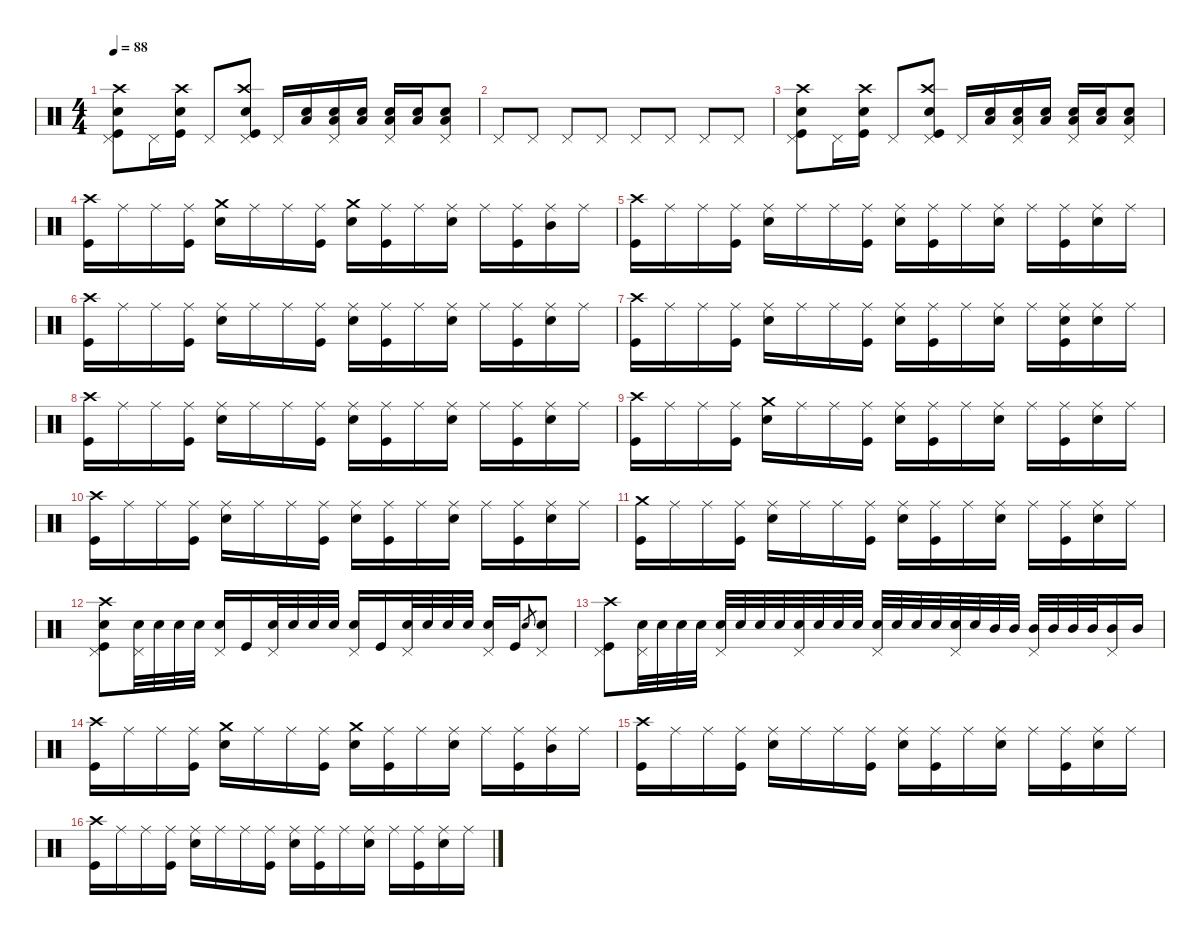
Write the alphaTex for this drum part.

\defaultSystemsLayout 4
\hideDynamics
\bracketExtendMode nobrackets
\singleTrackTrackNamePolicy hidden
\multiTrackTrackNamePolicy hidden
\firstSystemTrackNameMode fullname
\firstSystemTrackNameOrientation horizontal
\otherSystemsTrackNameOrientation horizontal
\track ("Drums" "drm.") {instrument percussion}
\staff {score}
\articulation defaults
\ts (4 4)
\tempo 88
\clef neutral
\ks c
("Crash high (hit)" "Pedal Hi-Hat (hit)" "Snare (hit) 2" "Kick (hit)").8{dy f beam Down} "Pedal Hi-Hat (hit)".16{dy pp beam Down} ("Crash high (hit)" "Snare (hit) 2" "Kick (hit)").16{dy f beam Down} "Pedal Hi-Hat (hit)".8{dy pp beam Up} ("Crash high (hit)" "Pedal Hi-Hat (hit)" "Snare (hit) 2" "Kick (hit)").8{dy f beam Up} "Pedal Hi-Hat (hit)".16{dy pp beam Up} ("Low Tom (hit)" "Snare (hit) 2").16{dy mf beam Up} ("Pedal Hi-Hat (hit)" "Low Tom (hit)" "Snare (hit) 2").16{dy pp beam Up} ("Low Tom (hit)" "Snare (hit) 2").16{dy mf beam Up} ("Pedal Hi-Hat (hit)" "Low Tom (hit)" "Snare (hit) 2").16{dy pp beam Up} ("Low Tom (hit)" "Snare (hit) 2").16{dy f beam Up} ("Pedal Hi-Hat (hit)" "Low Tom (hit)" "Snare (hit) 2").8{dy pp beam Up} |
"Pedal Hi-Hat (hit)".8{beam Up} "Pedal Hi-Hat (hit)".8{beam Up} "Pedal Hi-Hat (hit)".8{beam Up} "Pedal Hi-Hat (hit)".8{beam Up} "Pedal Hi-Hat (hit)".8{beam Up} "Pedal Hi-Hat (hit)".8{beam Up} "Pedal Hi-Hat (hit)".8{beam Up} "Pedal Hi-Hat (hit)".8{beam Up} |
("Crash high (hit)" "Pedal Hi-Hat (hit)" "Snare (hit) 2" "Kick (hit)").8{dy f beam Down} "Pedal Hi-Hat (hit)".16{dy pp beam Down} ("Crash high (hit)" "Snare (hit) 2" "Kick (hit)").16{dy f beam Down} "Pedal Hi-Hat (hit)".8{dy pp beam Up} ("Crash high (hit)" "Pedal Hi-Hat (hit)" "Snare (hit) 2" "Kick (hit)").8{dy f beam Up} "Pedal Hi-Hat (hit)".16{dy pp beam Up} ("Low Tom (hit)" "Snare (hit) 2").16{dy mf beam Up} ("Pedal Hi-Hat (hit)" "Low Tom (hit)" "Snare (hit) 2").16{dy pp beam Up} ("Low Tom (hit)" "Snare (hit) 2").16{dy mf beam Up} ("Pedal Hi-Hat (hit)" "Low Tom (hit)" "Snare (hit) 2").16{dy pp beam Up} ("Low Tom (hit)" "Snare (hit) 2").16{dy f beam Up} ("Pedal Hi-Hat (hit)" "Low Tom (hit)" "Snare (hit) 2").8{dy pp beam Up} |
("Crash high (hit)" "Kick (hit)").16{dy f beam Down} "Ride (middle)".16{dy mp beam Down} "Ride (middle)".16{dy f beam Down} ("Ride (middle)" "Kick (hit)").16{dy mp beam Down} ("Crash medium (hit)" "Snare (hit) 2").16{dy f beam Down} "Ride (middle)".16{dy mp beam Down} "Ride (middle)".16{dy f beam Down} ("Ride (middle)" "Kick (hit)").16{dy mp beam Down} ("Crash medium (hit)" "Snare (hit) 2").16{dy f beam Down} ("Ride (middle)" "Kick (hit)").16{dy mp beam Down} "Ride (middle)".16{dy f beam Down} ("Ride (middle)" "Snare (hit) 2").16{dy mp beam Down} "Ride (middle)".16{dy f beam Down} ("Ride (middle)" "Kick (hit)").16{dy mp beam Down} ("Ride (middle)" "Mid Tom (hit)").16{dy f beam Down} "Ride (middle)".16{dy mp beam Down} |
("Crash high (hit)" "Kick (hit)").16{dy f beam Down} "Ride (middle)".16{dy mp beam Down} "Ride (middle)".16{dy f beam Down} ("Ride (middle)" "Kick (hit)").16{dy mp beam Down} ("Ride (middle)" "Snare (hit) 2").16{dy f beam Down} "Ride (middle)".16{dy mp beam Down} "Ride (middle)".16{dy f beam Down} ("Ride (middle)" "Kick (hit)").16{dy mp beam Down} ("Ride (middle)" "Snare (hit) 2").16{dy f beam Down} ("Ride (middle)" "Kick (hit)").16{dy mp beam Down} "Ride (middle)".16{dy f beam Down} ("Ride (middle)" "Snare (hit) 2").16{dy mp beam Down} "Ride (middle)".16{dy f beam Down} ("Ride (middle)" "Kick (hit)").16{dy mp beam Down} ("Ride (middle)" "Snare (hit) 2").16{dy f beam Down} "Ride (middle)".16{dy mp beam Down} |
("Crash high (hit)" "Kick (hit)").16{dy f beam Down} "Ride (middle)".16{dy mp beam Down} "Ride (middle)".16{dy f beam Down} ("Ride (middle)" "Kick (hit)").16{dy mp beam Down} ("Ride (middle)" "Snare (hit) 2").16{dy f beam Down} "Ride (middle)".16{dy mp beam Down} "Ride (middle)".16{dy f beam Down} ("Ride (middle)" "Kick (hit)").16{dy mp beam Down} ("Ride (middle)" "Snare (hit) 2").16{dy f beam Down} ("Ride (middle)" "Kick (hit)").16{dy mp beam Down} "Ride (middle)".16{dy f beam Down} ("Ride (middle)" "Snare (hit) 2").16{dy mp beam Down} "Ride (middle)".16{dy f beam Down} ("Ride (middle)" "Kick (hit)").16{dy mp beam Down} ("Ride (middle)" "Snare (hit) 2").16{dy f beam Down} "Ride (middle)".16{dy mp beam Down} |
("Crash high (hit)" "Kick (hit)").16{dy f beam Down} "Ride (middle)".16{dy mp beam Down} "Ride (middle)".16{dy f beam Down} ("Ride (middle)" "Kick (hit)").16{dy mp beam Down} ("Ride (middle)" "Snare (hit) 2").16{dy f beam Down} "Ride (middle)".16{dy mp beam Down} "Ride (middle)".16{dy f beam Down} ("Ride (middle)" "Kick (hit)").16{dy mp beam Down} ("Ride (middle)" "Snare (hit) 2").16{dy f beam Down} ("Ride (middle)" "Kick (hit)").16{dy mp beam Down} "Ride (middle)".16{dy f beam Down} ("Ride (middle)" "Snare (hit) 2").16{dy mp beam Down} "Ride (middle)".16{dy f beam Down} ("Ride (middle)" "Snare (hit) 2" "Kick (hit)").16{dy mp beam Down} ("Ride (middle)" "Snare (hit) 2").16{dy f beam Down} "Ride (middle)".16{dy mp beam Down} |
("Crash high (hit)" "Kick (hit)").16{dy f beam Down} "Ride (middle)".16{dy mp beam Down} "Ride (middle)".16{dy f beam Down} ("Ride (middle)" "Kick (hit)").16{dy mp beam Down} ("Ride (middle)" "Snare (hit) 2").16{dy f beam Down} "Ride (middle)".16{dy mp beam Down} "Ride (middle)".16{dy f beam Down} ("Ride (middle)" "Kick (hit)").16{dy mp beam Down} ("Ride (middle)" "Snare (hit) 2").16{dy f beam Down} ("Ride (middle)" "Kick (hit)").16{dy mp beam Down} "Ride (middle)".16{dy f beam Down} ("Ride (middle)" "Snare (hit) 2").16{dy mp beam Down} "Ride (middle)".16{dy f beam Down} ("Ride (middle)" "Kick (hit)").16{dy mp beam Down} ("Ride (middle)" "Snare (hit) 2").16{dy f beam Down} "Ride (middle)".16{dy mp beam Down} |
("Crash high (hit)" "Kick (hit)").16{dy f beam Down} "Ride (middle)".16{dy mp beam Down} "Ride (middle)".16{dy f beam Down} ("Ride (middle)" "Kick (hit)").16{dy mp beam Down} ("Crash medium (hit)" "Snare (hit) 2").16{dy f beam Down} "Ride (middle)".16{dy mp beam Down} "Ride (middle)".16{dy f beam Down} ("Ride (middle)" "Kick (hit)").16{dy mp beam Down} ("Ride (middle)" "Snare (hit) 2").16{dy f beam Down} ("Ride (middle)" "Kick (hit)").16{dy mp beam Down} "Ride (middle)".16{dy f beam Down} ("Ride (middle)" "Snare (hit) 2").16{dy mp beam Down} "Ride (middle)".16{dy f beam Down} ("Ride (middle)" "Kick (hit)").16{dy mp beam Down} ("Ride (middle)" "Snare (hit) 2").16{dy f beam Down} "Ride (middle)".16{dy mp beam Down} |
("Crash high (hit)" "Kick (hit)").16{dy f beam Down} "Ride (middle)".16{dy mp beam Down} "Ride (middle)".16{dy f beam Down} ("Ride (middle)" "Kick (hit)").16{dy mp beam Down} ("Ride (middle)" "Snare (hit) 2").16{dy f beam Down} "Ride (middle)".16{dy mp beam Down} "Ride (middle)".16{dy f beam Down} ("Ride (middle)" "Kick (hit)").16{dy mp beam Down} ("Ride (middle)" "Snare (hit) 2").16{dy f beam Down} ("Ride (middle)" "Kick (hit)").16{dy mp beam Down} "Ride (middle)".16{dy f beam Down} ("Ride (middle)" "Snare (hit) 2").16{dy mp beam Down} "Ride (middle)".16{dy f beam Down} ("Ride (middle)" "Kick (hit)").16{dy mp beam Down} ("Ride (middle)" "Snare (hit) 2").16{dy f beam Down} "Ride (middle)".16{dy mp beam Down} |
("Crash medium (hit)" "Kick (hit)").16{dy f beam Down} "Ride (middle)".16{dy mp beam Down} "Ride (middle)".16{dy f beam Down} ("Ride (middle)" "Kick (hit)").16{dy mp beam Down} ("Ride (middle)" "Snare (hit) 2").16{dy f beam Down} "Ride (middle)".16{dy mp beam Down} "Ride (middle)".16{dy f beam Down} ("Ride (middle)" "Kick (hit)").16{dy mp beam Down} ("Ride (middle)" "Snare (hit) 2").16{dy f beam Down} ("Ride (middle)" "Kick (hit)").16{dy mp beam Down} "Ride (middle)".16{dy f beam Down} ("Ride (middle)" "Snare (hit) 2").16{dy mp beam Down} "Ride (middle)".16{dy f beam Down} ("Ride (middle)" "Kick (hit)").16{dy mp beam Down} ("Ride (middle)" "Snare (hit) 2").16{dy f beam Down} "Ride (middle)".16{dy mp beam Down} |
("Crash high (hit)" "Pedal Hi-Hat (hit)" "Snare (hit) 2" "Kick (hit)").8{dy f beam Down} ("Pedal Hi-Hat (hit)" "Snare (hit) 2").32{dy p beam Down} "Snare (hit) 2".32{dy mp beam Down} "Snare (hit) 2".32{beam Down} "Snare (hit) 2".32{dy mf beam Down} ("Pedal Hi-Hat (hit)" "Snare (hit) 2").16{dy p beam Up} "Kick (hit)".16{dy f beam Up} ("Pedal Hi-Hat (hit)" "Snare (hit) 2").32{dy p beam Up} "Snare (hit) 2".32{dy mp beam Up} "Snare (hit) 2".32{beam Up} "Snare (hit) 2".32{dy mf beam Up} ("Pedal Hi-Hat (hit)" "Snare (hit) 2").16{dy p beam Up} "Kick (hit)".16{dy f beam Up} ("Pedal Hi-Hat (hit)" "Snare (hit) 2").32{dy p beam Up} "Snare (hit) 2".32{dy mp beam Up} "Snare (hit) 2".32{beam Up} "Snare (hit) 2".32{dy mf beam Up} ("Pedal Hi-Hat (hit)" "Snare (hit) 2").16{dy p beam Up} "Kick (hit)".16{dy f beam Up} "Snare (hit) 2".8{gr dy mp beam Up} ("Pedal Hi-Hat (hit)" "Snare (hit) 2").8{dy p beam Up} |
("Crash high (hit)" "Pedal Hi-Hat (hit)" "Kick (hit)").8{dy f beam Down} ("Pedal Hi-Hat (hit)" "Snare (hit) 2").32{dy p beam Down} "Snare (hit) 2".32{dy mf beam Down} "Snare (hit) 2".32{dy pp beam Down} "Snare (hit) 2".32{dy f beam Down} ("Pedal Hi-Hat (hit)" "Snare (hit) 2").32{dy p beam Up} "Snare (hit) 2".32{dy pp beam Up} "Snare (hit) 2".32{dy f beam Up} "Snare (hit) 2".32{dy mf beam Up} ("Pedal Hi-Hat (hit)" "Snare (hit) 2").32{dy p beam Up} "Snare (hit) 2".32{dy f beam Up} "Snare (hit) 2".32{dy mf beam Up} "Snare (hit) 2".32{dy pp beam Up} ("Pedal Hi-Hat (hit)" "Snare (hit) 2").32{dy p beam Up} "Snare (hit) 2".32{dy mp beam Up} "Snare (hit) 2".32{beam Up} "Snare (hit) 2".32{dy mf beam Up} ("Pedal Hi-Hat (hit)" "Snare (hit) 2").32{dy p beam Up} "Snare (hit) 2".32{dy pp beam Up} "Mid Tom (hit)".32{dy mp beam Up} "Mid Tom (hit)".32{dy p beam Up} ("Pedal Hi-Hat (hit)" "Mid Tom (hit)").32{beam Up} "Mid Tom (hit)".32{dy mp beam Up} "Mid Tom (hit)".32{beam Up} "Mid Tom (hit)".32{dy mf beam Up} ("Pedal Hi-Hat (hit)" "Mid Tom (hit)").16{dy p beam Up} "Mid Tom (hit)".16{dy mp beam Up} |
("Crash high (hit)" "Kick (hit)").16{dy f beam Down} "Ride (middle)".16{dy mp beam Down} "Ride (middle)".16{dy f beam Down} ("Ride (middle)" "Kick (hit)").16{dy mp beam Down} ("Crash medium (hit)" "Snare (hit) 2").16{dy f beam Down} "Ride (middle)".16{dy mp beam Down} "Ride (middle)".16{dy f beam Down} ("Ride (middle)" "Kick (hit)").16{dy mp beam Down} ("Crash medium (hit)" "Snare (hit) 2").16{dy f beam Down} ("Ride (middle)" "Kick (hit)").16{dy mp beam Down} "Ride (middle)".16{dy f beam Down} ("Ride (middle)" "Snare (hit) 2").16{dy mp beam Down} "Ride (middle)".16{dy f beam Down} ("Ride (middle)" "Kick (hit)").16{dy mp beam Down} ("Ride (middle)" "Mid Tom (hit)").16{dy f beam Down} "Ride (middle)".16{dy mp beam Down} |
("Crash high (hit)" "Kick (hit)").16{dy f beam Down} "Ride (middle)".16{dy mp beam Down} "Ride (middle)".16{dy f beam Down} ("Ride (middle)" "Kick (hit)").16{dy mp beam Down} ("Ride (middle)" "Snare (hit) 2").16{dy f beam Down} "Ride (middle)".16{dy mp beam Down} "Ride (middle)".16{dy f beam Down} ("Ride (middle)" "Kick (hit)").16{dy mp beam Down} ("Ride (middle)" "Snare (hit) 2").16{dy f beam Down} ("Ride (middle)" "Kick (hit)").16{dy mp beam Down} "Ride (middle)".16{dy f beam Down} ("Ride (middle)" "Snare (hit) 2").16{dy mp beam Down} "Ride (middle)".16{dy f beam Down} ("Ride (middle)" "Kick (hit)").16{dy mp beam Down} ("Ride (middle)" "Snare (hit) 2").16{dy f beam Down} "Ride (middle)".16{dy mp beam Down} |
("Crash high (hit)" "Kick (hit)").16{dy f beam Down} "Ride (middle)".16{dy mp beam Down} "Ride (middle)".16{dy f beam Down} ("Ride (middle)" "Kick (hit)").16{dy mp beam Down} ("Ride (middle)" "Snare (hit) 2").16{dy f beam Down} "Ride (middle)".16{dy mp beam Down} "Ride (middle)".16{dy f beam Down} ("Ride (middle)" "Kick (hit)").16{dy mp beam Down} ("Ride (middle)" "Snare (hit) 2").16{dy f beam Down} ("Ride (middle)" "Kick (hit)").16{dy mp beam Down} "Ride (middle)".16{dy f beam Down} ("Ride (middle)" "Snare (hit) 2").16{dy mp beam Down} "Ride (middle)".16{dy f beam Down} ("Ride (middle)" "Kick (hit)").16{dy mp beam Down} ("Ride (middle)" "Snare (hit) 2").16{dy f beam Down} "Ride (middle)".16{dy mp beam Down}
